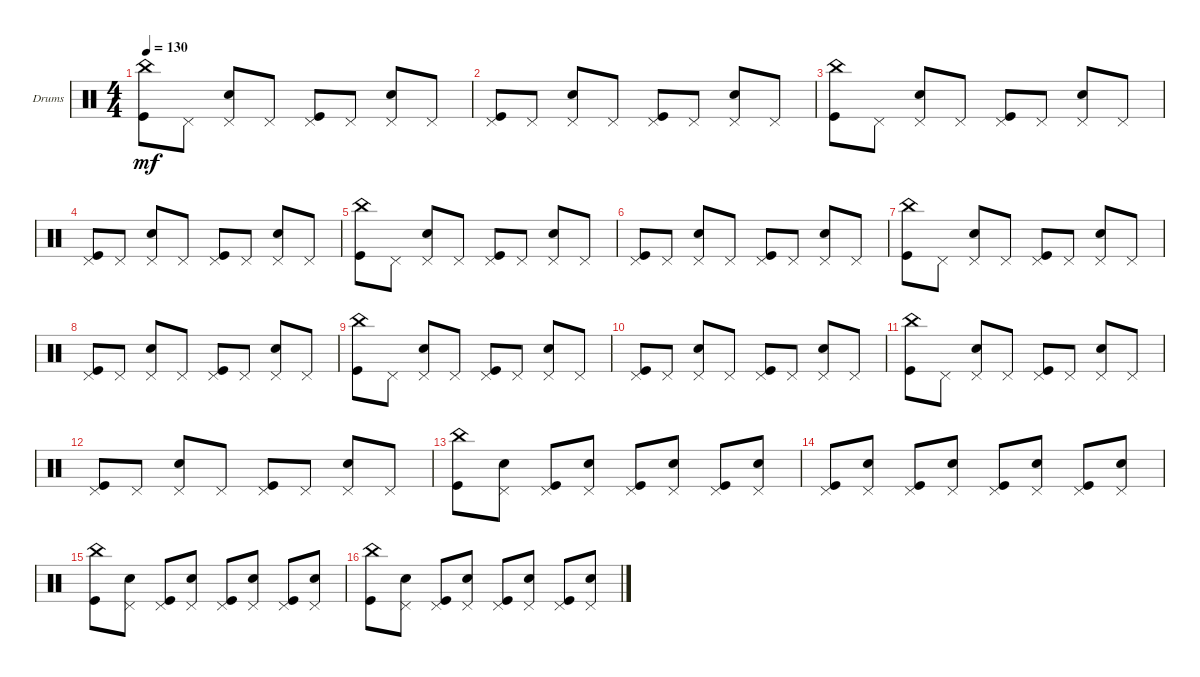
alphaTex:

\defaultSystemsLayout 4
\bracketExtendMode groupsimilarinstruments
\firstSystemTrackNameOrientation horizontal
\otherSystemsTrackNameOrientation horizontal
\track ("Drumkit" "Drums") {instrument percussion}
\staff {score}
\articulation defaults
\ts (4 4)
\tempo 130
\clef neutral
\scale
0.333333
\ks c
("Kick (hit)" "China (hit)").8{dy mf} "Pedal Hi-Hat (hit)".8 ("Snare (hit) 2" "Pedal Hi-Hat (hit)").8 "Pedal Hi-Hat (hit)".8 ("Kick (hit)" "Pedal Hi-Hat (hit)").8 "Pedal Hi-Hat (hit)".8 ("Snare (hit) 2" "Pedal Hi-Hat (hit)").8 "Pedal Hi-Hat (hit)".8 |
\scale
0.333333 ("Kick (hit)" "Pedal Hi-Hat (hit)").8 "Pedal Hi-Hat (hit)".8 ("Snare (hit) 2" "Pedal Hi-Hat (hit)").8 "Pedal Hi-Hat (hit)".8 ("Kick (hit)" "Pedal Hi-Hat (hit)").8 "Pedal Hi-Hat (hit)".8 ("Snare (hit) 2" "Pedal Hi-Hat (hit)").8 "Pedal Hi-Hat (hit)".8 |
\scale
0.333333 ("Kick (hit)" "China (hit)").8 "Pedal Hi-Hat (hit)".8 ("Snare (hit) 2" "Pedal Hi-Hat (hit)").8 "Pedal Hi-Hat (hit)".8 ("Kick (hit)" "Pedal Hi-Hat (hit)").8 "Pedal Hi-Hat (hit)".8 ("Snare (hit) 2" "Pedal Hi-Hat (hit)").8 "Pedal Hi-Hat (hit)".8 |
\scale
0.333333 ("Kick (hit)" "Pedal Hi-Hat (hit)").8 "Pedal Hi-Hat (hit)".8 ("Snare (hit) 2" "Pedal Hi-Hat (hit)").8 "Pedal Hi-Hat (hit)".8 ("Kick (hit)" "Pedal Hi-Hat (hit)").8 "Pedal Hi-Hat (hit)".8 ("Snare (hit) 2" "Pedal Hi-Hat (hit)").8 "Pedal Hi-Hat (hit)".8 |
\scale
0.333333 ("Kick (hit)" "China (hit)").8 "Pedal Hi-Hat (hit)".8 ("Snare (hit) 2" "Pedal Hi-Hat (hit)").8 "Pedal Hi-Hat (hit)".8 ("Kick (hit)" "Pedal Hi-Hat (hit)").8 "Pedal Hi-Hat (hit)".8 ("Snare (hit) 2" "Pedal Hi-Hat (hit)").8 "Pedal Hi-Hat (hit)".8 |
\scale
0.333333 ("Kick (hit)" "Pedal Hi-Hat (hit)").8 "Pedal Hi-Hat (hit)".8 ("Snare (hit) 2" "Pedal Hi-Hat (hit)").8 "Pedal Hi-Hat (hit)".8 ("Kick (hit)" "Pedal Hi-Hat (hit)").8 "Pedal Hi-Hat (hit)".8 ("Snare (hit) 2" "Pedal Hi-Hat (hit)").8 "Pedal Hi-Hat (hit)".8 |
\scale
0.333333 ("Kick (hit)" "China (hit)").8 "Pedal Hi-Hat (hit)".8 ("Snare (hit) 2" "Pedal Hi-Hat (hit)").8 "Pedal Hi-Hat (hit)".8 ("Kick (hit)" "Pedal Hi-Hat (hit)").8 "Pedal Hi-Hat (hit)".8 ("Snare (hit) 2" "Pedal Hi-Hat (hit)").8 "Pedal Hi-Hat (hit)".8 |
\scale
0.333333 ("Kick (hit)" "Pedal Hi-Hat (hit)").8 "Pedal Hi-Hat (hit)".8 ("Snare (hit) 2" "Pedal Hi-Hat (hit)").8 "Pedal Hi-Hat (hit)".8 ("Kick (hit)" "Pedal Hi-Hat (hit)").8 "Pedal Hi-Hat (hit)".8 ("Snare (hit) 2" "Pedal Hi-Hat (hit)").8 "Pedal Hi-Hat (hit)".8 |
\scale
0.333333 ("Kick (hit)" "China (hit)").8 "Pedal Hi-Hat (hit)".8 ("Snare (hit) 2" "Pedal Hi-Hat (hit)").8 "Pedal Hi-Hat (hit)".8 ("Kick (hit)" "Pedal Hi-Hat (hit)").8 "Pedal Hi-Hat (hit)".8 ("Snare (hit) 2" "Pedal Hi-Hat (hit)").8 "Pedal Hi-Hat (hit)".8 |
\scale
0.333333 ("Kick (hit)" "Pedal Hi-Hat (hit)").8 "Pedal Hi-Hat (hit)".8 ("Snare (hit) 2" "Pedal Hi-Hat (hit)").8 "Pedal Hi-Hat (hit)".8 ("Kick (hit)" "Pedal Hi-Hat (hit)").8 "Pedal Hi-Hat (hit)".8 ("Snare (hit) 2" "Pedal Hi-Hat (hit)").8 "Pedal Hi-Hat (hit)".8 |
\scale
0.333333 ("Kick (hit)" "China (hit)").8 "Pedal Hi-Hat (hit)".8 ("Snare (hit) 2" "Pedal Hi-Hat (hit)").8 "Pedal Hi-Hat (hit)".8 ("Kick (hit)" "Pedal Hi-Hat (hit)").8 "Pedal Hi-Hat (hit)".8 ("Snare (hit) 2" "Pedal Hi-Hat (hit)").8 "Pedal Hi-Hat (hit)".8 |
\scale
0.333333 ("Kick (hit)" "Pedal Hi-Hat (hit)").8 "Pedal Hi-Hat (hit)".8 ("Snare (hit) 2" "Pedal Hi-Hat (hit)").8 "Pedal Hi-Hat (hit)".8 ("Kick (hit)" "Pedal Hi-Hat (hit)").8 "Pedal Hi-Hat (hit)".8 ("Snare (hit) 2" "Pedal Hi-Hat (hit)").8 "Pedal Hi-Hat (hit)".8 |
\scale
0.333333 ("Kick (hit)" "China (hit)").8 ("Pedal Hi-Hat (hit)" "Snare (hit) 2").8 ("Pedal Hi-Hat (hit)" "Kick (hit)").8 ("Pedal Hi-Hat (hit)" "Snare (hit) 2").8 ("Kick (hit)" "Pedal Hi-Hat (hit)").8 ("Pedal Hi-Hat (hit)" "Snare (hit) 2").8 ("Pedal Hi-Hat (hit)" "Kick (hit)").8 ("Pedal Hi-Hat (hit)" "Snare (hit) 2").8 |
\scale
0.333333 ("Kick (hit)" "Pedal Hi-Hat (hit)").8 ("Pedal Hi-Hat (hit)" "Snare (hit) 2").8 ("Pedal Hi-Hat (hit)" "Kick (hit)").8 ("Pedal Hi-Hat (hit)" "Snare (hit) 2").8 ("Kick (hit)" "Pedal Hi-Hat (hit)").8 ("Pedal Hi-Hat (hit)" "Snare (hit) 2").8 ("Pedal Hi-Hat (hit)" "Kick (hit)").8 ("Pedal Hi-Hat (hit)" "Snare (hit) 2").8 |
\scale
0.333333 ("Kick (hit)" "China (hit)").8 ("Pedal Hi-Hat (hit)" "Snare (hit) 2").8 ("Pedal Hi-Hat (hit)" "Kick (hit)").8 ("Pedal Hi-Hat (hit)" "Snare (hit) 2").8 ("Kick (hit)" "Pedal Hi-Hat (hit)").8 ("Pedal Hi-Hat (hit)" "Snare (hit) 2").8 ("Pedal Hi-Hat (hit)" "Kick (hit)").8 ("Pedal Hi-Hat (hit)" "Snare (hit) 2").8 |
\scale
0.333333 ("Kick (hit)" "China (hit)").8 ("Pedal Hi-Hat (hit)" "Snare (hit) 2").8 ("Pedal Hi-Hat (hit)" "Kick (hit)").8 ("Pedal Hi-Hat (hit)" "Snare (hit) 2").8 ("Kick (hit)" "Pedal Hi-Hat (hit)").8 ("Pedal Hi-Hat (hit)" "Snare (hit) 2").8 ("Pedal Hi-Hat (hit)" "Kick (hit)").8 ("Pedal Hi-Hat (hit)" "Snare (hit) 2").8
